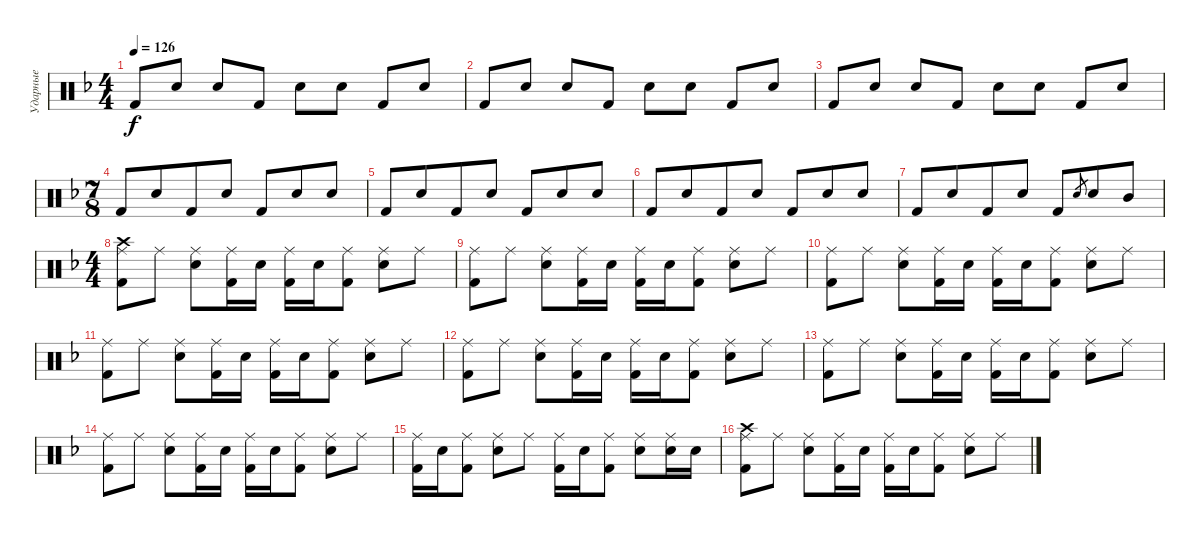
\track ("Ударные" "Ударные") {instrument percussion}
\staff {score}
\articulation defaults
\ts (4 4)
\tempo 126
\clef neutral
\ks dminor "Kick (hit) 2".8{dy f} "Electric Snare (hit)".8 "Electric Snare (hit)".8 "Kick (hit) 2".8 "Electric Snare (hit)".8 "Electric Snare (hit)".8 "Kick (hit) 2".8 "Electric Snare (hit)".8
|
"Kick (hit) 2".8 "Electric Snare (hit)".8 "Electric Snare (hit)".8 "Kick (hit) 2".8 "Electric Snare (hit)".8 "Electric Snare (hit)".8 "Kick (hit) 2".8 "Electric Snare (hit)".8 |
"Kick (hit) 2".8 "Electric Snare (hit)".8 "Electric Snare (hit)".8 "Kick (hit) 2".8 "Electric Snare (hit)".8 "Electric Snare (hit)".8 "Kick (hit) 2".8 "Electric Snare (hit)".8 |
\ts (7 8)
"Kick (hit) 2".8 "Electric Snare (hit)".8 "Kick (hit) 2".8 "Electric Snare (hit)".8 "Kick (hit) 2".8 "Electric Snare (hit)".8 "Electric Snare (hit)".8 |
"Kick (hit) 2".8 "Electric Snare (hit)".8 "Kick (hit) 2".8 "Electric Snare (hit)".8 "Kick (hit) 2".8 "Electric Snare (hit)".8 "Electric Snare (hit)".8 |
"Kick (hit) 2".8 "Electric Snare (hit)".8 "Kick (hit) 2".8 "Electric Snare (hit)".8 "Kick (hit) 2".8 "Electric Snare (hit)".8 "Electric Snare (hit)".8 |
"Kick (hit) 2".8 "Electric Snare (hit)".8 "Kick (hit) 2".8 "Electric Snare (hit)".8 "Kick (hit) 2".8 "Electric Snare (hit)".8{gr} "Electric Snare (hit)".8{volume 15} "Mid Tom (hit)".8{volume 10} |
\ts (4 4)
("Ride (middle)" "Crash high (hit)" "Kick (hit) 2").8 "Ride (middle)".8 ("Ride (middle)" "Electric Snare (hit)").8 ("Ride (middle)" "Kick (hit) 2").16 "Electric Snare (hit)".16 ("Ride (middle)" "Kick (hit) 2").16 "Electric Snare (hit)".16 ("Ride (middle)" "Kick (hit) 2").8 ("Ride (middle)" "Electric Snare (hit)").8 "Ride (middle)".8 |
("Ride (middle)" "Kick (hit) 2").8 "Ride (middle)".8 ("Ride (middle)" "Electric Snare (hit)").8 ("Ride (middle)" "Kick (hit) 2").16 "Electric Snare (hit)".16 ("Ride (middle)" "Kick (hit) 2").16 "Electric Snare (hit)".16 ("Ride (middle)" "Kick (hit) 2").8 ("Ride (middle)" "Electric Snare (hit)").8 "Ride (middle)".8 |
("Ride (middle)" "Kick (hit) 2").8 "Ride (middle)".8 ("Ride (middle)" "Electric Snare (hit)").8 ("Ride (middle)" "Kick (hit) 2").16 "Electric Snare (hit)".16 ("Ride (middle)" "Kick (hit) 2").16 "Electric Snare (hit)".16 ("Ride (middle)" "Kick (hit) 2").8 ("Ride (middle)" "Electric Snare (hit)").8 "Ride (middle)".8 |
("Ride (middle)" "Kick (hit) 2").8 "Ride (middle)".8 ("Ride (middle)" "Electric Snare (hit)").8 ("Ride (middle)" "Kick (hit) 2").16 "Electric Snare (hit)".16 ("Ride (middle)" "Kick (hit) 2").16 "Electric Snare (hit)".16 ("Ride (middle)" "Kick (hit) 2").8 ("Ride (middle)" "Electric Snare (hit)").8 "Ride (middle)".8 |
("Ride (middle)" "Kick (hit) 2").8 "Ride (middle)".8 ("Ride (middle)" "Electric Snare (hit)").8 ("Ride (middle)" "Kick (hit) 2").16 "Electric Snare (hit)".16 ("Ride (middle)" "Kick (hit) 2").16 "Electric Snare (hit)".16 ("Ride (middle)" "Kick (hit) 2").8 ("Ride (middle)" "Electric Snare (hit)").8 "Ride (middle)".8 |
("Ride (middle)" "Kick (hit) 2").8 "Ride (middle)".8 ("Ride (middle)" "Electric Snare (hit)").8 ("Ride (middle)" "Kick (hit) 2").16 "Electric Snare (hit)".16 ("Ride (middle)" "Kick (hit) 2").16 "Electric Snare (hit)".16 ("Ride (middle)" "Kick (hit) 2").8 ("Ride (middle)" "Electric Snare (hit)").8 "Ride (middle)".8 |
("Ride (middle)" "Kick (hit) 2").8 "Ride (middle)".8 ("Ride (middle)" "Electric Snare (hit)").8 ("Ride (middle)" "Kick (hit) 2").16 "Electric Snare (hit)".16 ("Ride (middle)" "Kick (hit) 2").16 "Electric Snare (hit)".16 ("Ride (middle)" "Kick (hit) 2").8 ("Ride (middle)" "Electric Snare (hit)").8 "Ride (middle)".8 |
("Ride (middle)" "Kick (hit) 2").16 "Electric Snare (hit)".16 ("Ride (middle)" "Kick (hit) 2").8 ("Ride (middle)" "Electric Snare (hit)").8 "Ride (middle)".8 ("Ride (middle)" "Kick (hit) 2").16 "Electric Snare (hit)".16 ("Ride (middle)" "Kick (hit) 2").8 ("Ride (middle)" "Electric Snare (hit)").8 ("Ride (middle)" "Electric Snare (hit)").16 "Electric Snare (hit)".16 |
("Ride (middle)" "Crash high (hit)" "Kick (hit) 2").8 "Ride (middle)".8 ("Ride (middle)" "Electric Snare (hit)").8 ("Ride (middle)" "Kick (hit) 2").16 "Electric Snare (hit)".16 ("Ride (middle)" "Kick (hit) 2").16 "Electric Snare (hit)".16 ("Ride (middle)" "Kick (hit) 2").8 ("Ride (middle)" "Electric Snare (hit)").8 "Ride (middle)".8
